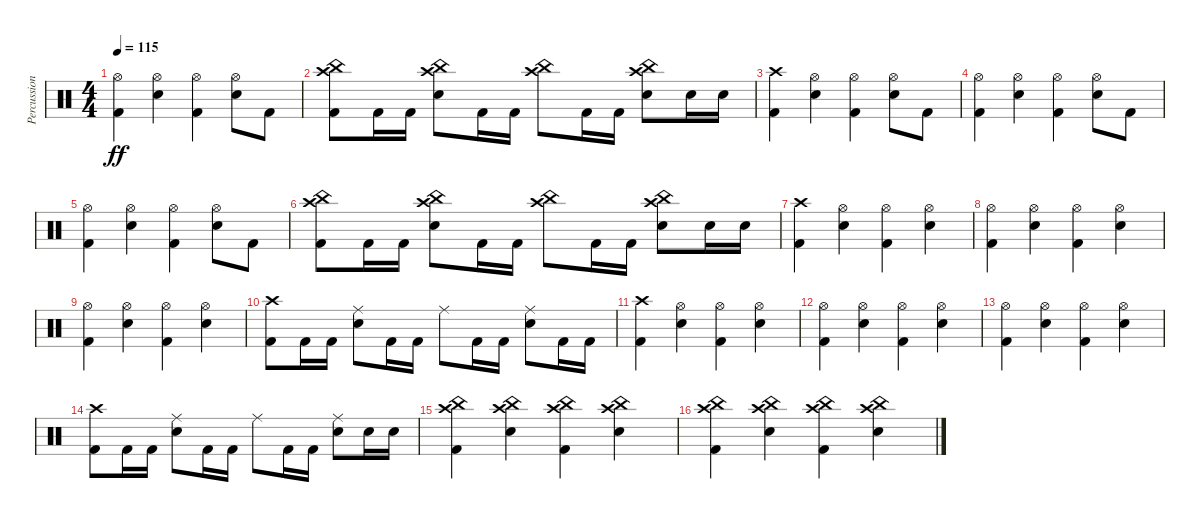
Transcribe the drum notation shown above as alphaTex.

\track ("Percussion" "Percussion") {instrument percussion}
\staff {score}
\articulation defaults
\ts (4 4)
\tempo 115
\clef neutral
\ks c
("Kick (hit) 2" "Hi-Hat (open)").4{dy ff} ("Electric Snare (hit)" "Hi-Hat (open)").4 ("Kick (hit) 2" "Hi-Hat (open)").4 ("Electric Snare (hit)" "Hi-Hat (open)").8 "Kick (hit) 2".8 |
("Kick (hit) 2" "Crash high (hit)" "China (hit)").8 "Kick (hit) 2".16 "Kick (hit) 2".16 ("Electric Snare (hit)" "Crash high (hit)" "China (hit)").8 "Kick (hit) 2".16 "Kick (hit) 2".16 ("Crash high (hit)" "China (hit)").8 "Kick (hit) 2".16 "Kick (hit) 2".16 ("Electric Snare (hit)" "Crash high (hit)" "China (hit)").8 "Electric Snare (hit)".16 "Electric Snare (hit)".16 |
("Kick (hit) 2" "Crash high (hit)").4 ("Electric Snare (hit)" "Hi-Hat (open)").4 ("Kick (hit) 2" "Hi-Hat (open)").4 ("Electric Snare (hit)" "Hi-Hat (open)").8 "Kick (hit) 2".8 |
("Kick (hit) 2" "Hi-Hat (open)").4 ("Electric Snare (hit)" "Hi-Hat (open)").4 ("Kick (hit) 2" "Hi-Hat (open)").4 ("Electric Snare (hit)" "Hi-Hat (open)").8 "Kick (hit) 2".8 |
("Kick (hit) 2" "Hi-Hat (open)").4 ("Electric Snare (hit)" "Hi-Hat (open)").4 ("Kick (hit) 2" "Hi-Hat (open)").4 ("Electric Snare (hit)" "Hi-Hat (open)").8 "Kick (hit) 2".8 |
("Kick (hit) 2" "Crash high (hit)" "China (hit)").8 "Kick (hit) 2".16 "Kick (hit) 2".16 ("Electric Snare (hit)" "Crash high (hit)" "China (hit)").8 "Kick (hit) 2".16 "Kick (hit) 2".16 ("Crash high (hit)" "China (hit)").8 "Kick (hit) 2".16 "Kick (hit) 2".16 ("Electric Snare (hit)" "Crash high (hit)" "China (hit)").8 "Electric Snare (hit)".16 "Electric Snare (hit)".16 |
("Kick (hit) 2" "Crash high (hit)").4 ("Electric Snare (hit)" "Hi-Hat (open)").4 ("Kick (hit) 2" "Hi-Hat (open)").4 ("Electric Snare (hit)" "Hi-Hat (open)").4 |
("Kick (hit) 2" "Hi-Hat (open)").4 ("Electric Snare (hit)" "Hi-Hat (open)").4 ("Kick (hit) 2" "Hi-Hat (open)").4 ("Electric Snare (hit)" "Hi-Hat (open)").4 |
("Kick (hit) 2" "Hi-Hat (open)").4 ("Electric Snare (hit)" "Hi-Hat (open)").4 ("Kick (hit) 2" "Hi-Hat (open)").4 ("Electric Snare (hit)" "Hi-Hat (open)").4 |
("Kick (hit) 2" "Crash high (hit)").8 "Kick (hit) 2".16 "Kick (hit) 2".16 ("Electric Snare (hit)" "Ride (middle)").8 "Kick (hit) 2".16 "Kick (hit) 2".16 "Ride (middle)".8 "Kick (hit) 2".16 "Kick (hit) 2".16 ("Electric Snare (hit)" "Ride (middle)").8 "Kick (hit) 2".16 "Kick (hit) 2".16 |
("Kick (hit) 2" "Crash high (hit)").4 ("Electric Snare (hit)" "Hi-Hat (open)").4 ("Kick (hit) 2" "Hi-Hat (open)").4 ("Electric Snare (hit)" "Hi-Hat (open)").4 |
("Kick (hit) 2" "Hi-Hat (open)").4 ("Electric Snare (hit)" "Hi-Hat (open)").4 ("Kick (hit) 2" "Hi-Hat (open)").4 ("Electric Snare (hit)" "Hi-Hat (open)").4 |
("Kick (hit) 2" "Hi-Hat (open)").4 ("Electric Snare (hit)" "Hi-Hat (open)").4 ("Kick (hit) 2" "Hi-Hat (open)").4 ("Electric Snare (hit)" "Hi-Hat (open)").4 |
("Kick (hit) 2" "Crash high (hit)").8 "Kick (hit) 2".16 "Kick (hit) 2".16 ("Electric Snare (hit)" "Ride (middle)").8 "Kick (hit) 2".16 "Kick (hit) 2".16 "Ride (middle)".8 "Kick (hit) 2".16 "Kick (hit) 2".16 ("Electric Snare (hit)" "Ride (middle)").8 "Electric Snare (hit)".16 "Electric Snare (hit)".16 |
("Kick (hit) 2" "Crash high (hit)" "China (hit)").4 ("Electric Snare (hit)" "Crash high (hit)" "China (hit)").4 ("Kick (hit) 2" "Crash high (hit)" "China (hit)").4 ("Electric Snare (hit)" "Crash high (hit)" "China (hit)").4 |
("Kick (hit) 2" "Crash high (hit)" "China (hit)").4 ("Electric Snare (hit)" "Crash high (hit)" "China (hit)").4 ("Kick (hit) 2" "Crash high (hit)" "China (hit)").4 ("Electric Snare (hit)" "Crash high (hit)" "China (hit)").4
